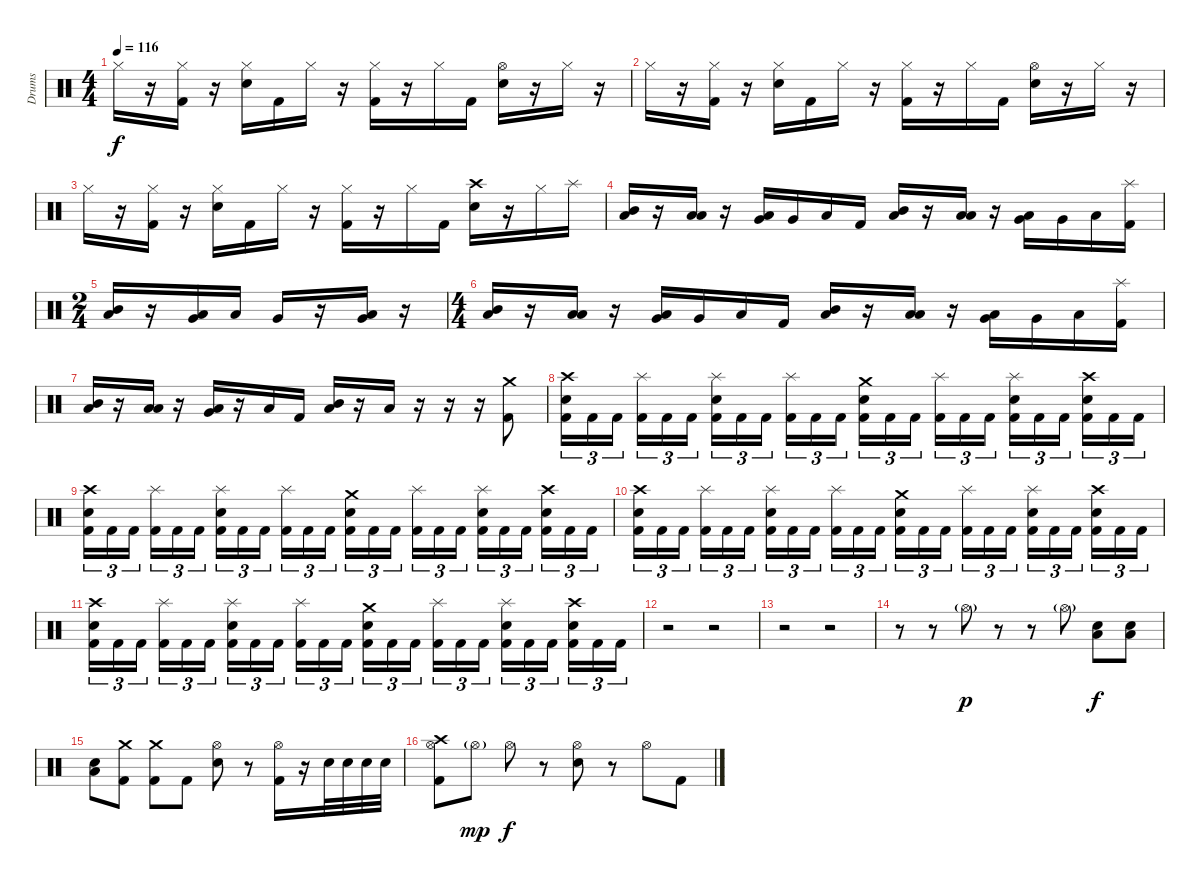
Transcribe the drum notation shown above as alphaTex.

\track ("Drums" "Drums") {instrument percussion}
\staff {score}
\articulation defaults
\ts (4 4)
\tempo 116
\clef neutral
\ks c "Hi-Hat (closed)".16{dy f}
r.16 ("Hi-Hat (closed)" "Kick (hit) 2").16 r.16 ("Hi-Hat (closed)" "Snare (hit) 2").16 "Kick (hit) 2".16 "Hi-Hat (closed)".16 r.16 ("Hi-Hat (closed)" "Kick (hit) 2").16 r.16 "Hi-Hat (closed)".16 "Kick (hit) 2".16 ("Hi-Hat (open)" "Snare (hit) 2").16 r.16 "Hi-Hat (closed)".16 r.16 |
"Hi-Hat (closed)".16 r.16 ("Hi-Hat (closed)" "Kick (hit) 2").16 r.16 ("Hi-Hat (closed)" "Snare (hit) 2").16 "Kick (hit) 2".16 "Hi-Hat (closed)".16 r.16 ("Hi-Hat (closed)" "Kick (hit) 2").16 r.16 "Hi-Hat (closed)".16 "Kick (hit) 2".16 ("Hi-Hat (open)" "Snare (hit) 2").16 r.16 "Hi-Hat (closed)".16 r.16 |
"Hi-Hat (closed)".16 r.16 ("Hi-Hat (closed)" "Kick (hit) 2").16 r.16 ("Hi-Hat (closed)" "Snare (hit) 2").16 "Kick (hit) 2".16 "Hi-Hat (closed)".16 r.16 ("Hi-Hat (closed)" "Kick (hit) 2").16 r.16 "Hi-Hat (closed)".16 "Kick (hit) 2".16 ("Crash high (hit)" "Snare (hit) 2").16 r.16 "Hi-Hat (closed)".16 "Splash (hit)".16 |
("Mid Tom (hit)" "Low Floor Tom (hit)").16 r.16 ("Low Tom (hit)" "Low Floor Tom (hit)").16 r.16 ("Very Low Tom (hit)" "Low Floor Tom (hit)").16 "Very Low Tom (hit)".16 "Low Floor Tom (hit)".16 "Kick (hit) 2".16 ("Mid Tom (hit)" "Low Floor Tom (hit)").16 r.16 ("Low Tom (hit)" "Low Floor Tom (hit)").16 r.16 ("Very Low Tom (hit)" "Low Floor Tom (hit)").16 "Very Low Tom (hit)".16 "Low Floor Tom (hit)".16 ("Splash (hit)" "Kick (hit) 2").16 |
\ts (2 4)
("Mid Tom (hit)" "Low Tom (hit)").16 r.16 ("Very Low Tom (hit)" "Low Tom (hit)").16 "Low Tom (hit)".16 "Very Low Tom (hit)".16 r.16 ("Low Floor Tom (hit)" "Very Low Tom (hit)").16 r.16 |
\ts (4 4)
("Mid Tom (hit)" "Low Floor Tom (hit)").16 r.16 ("Low Tom (hit)" "Low Floor Tom (hit)").16 r.16 ("Very Low Tom (hit)" "Low Floor Tom (hit)").16 "Very Low Tom (hit)".16 "Low Floor Tom (hit)".16 "Kick (hit) 2".16 ("Mid Tom (hit)" "Low Floor Tom (hit)").16 r.16 ("Low Tom (hit)" "Low Floor Tom (hit)").16 r.16 ("Very Low Tom (hit)" "Low Floor Tom (hit)").16 "Very Low Tom (hit)".16 "Low Floor Tom (hit)".16 ("Splash (hit)" "Kick (hit) 2").16 |
("Mid Tom (hit)" "Low Floor Tom (hit)").16 r.16 ("Low Tom (hit)" "Low Floor Tom (hit)").16 r.16 ("Very Low Tom (hit)" "Low Floor Tom (hit)").16 r.16 "Low Floor Tom (hit)".16 "Kick (hit) 2".16 ("Mid Tom (hit)" "Low Floor Tom (hit)").16 r.16 "Low Floor Tom (hit)".16 r.16 r.16 r.16 ("Crash medium (hit)" "Kick (hit) 2").8 |
("Crash high (hit)" "Snare (hit) 2" "Kick (hit) 2").16{tu (3 2)} "Kick (hit) 2".16{tu (3 2)} "Kick (hit) 2".16{tu (3 2)} ("Splash (hit)" "Kick (hit) 2").16{tu (3 2)} "Kick (hit) 2".16{tu (3 2)} "Kick (hit) 2".16{tu (3 2)} ("Splash (hit)" "Snare (hit) 2" "Kick (hit) 2").16{tu (3 2)} "Kick (hit) 2".16{tu (3 2)} "Kick (hit) 2".16{tu (3 2)} ("Splash (hit)" "Kick (hit) 2").16{tu (3 2)} "Kick (hit) 2".16{tu (3 2)} "Kick (hit) 2".16{tu (3 2)} ("Crash medium (hit)" "Snare (hit) 2" "Kick (hit) 2").16{tu (3 2)} "Kick (hit) 2".16{tu (3 2)} "Kick (hit) 2".16{tu (3 2)} ("Splash (hit)" "Kick (hit) 2").16{tu (3 2)} "Kick (hit) 2".16{tu (3 2)} "Kick (hit) 2".16{tu (3 2)} ("Splash (hit)" "Snare (hit) 2" "Kick (hit) 2").16{tu (3 2)} "Kick (hit) 2".16{tu (3 2)} "Kick (hit) 2".16{tu (3 2)} ("Crash high (hit)" "Snare (hit) 2" "Kick (hit) 2").16{tu (3 2)} "Kick (hit) 2".16{tu (3 2)} "Kick (hit) 2".16{tu (3 2)} |
("Crash high (hit)" "Snare (hit) 2" "Kick (hit) 2").16{tu (3 2)} "Kick (hit) 2".16{tu (3 2)} "Kick (hit) 2".16{tu (3 2)} ("Splash (hit)" "Kick (hit) 2").16{tu (3 2)} "Kick (hit) 2".16{tu (3 2)} "Kick (hit) 2".16{tu (3 2)} ("Splash (hit)" "Snare (hit) 2" "Kick (hit) 2").16{tu (3 2)} "Kick (hit) 2".16{tu (3 2)} "Kick (hit) 2".16{tu (3 2)} ("Splash (hit)" "Kick (hit) 2").16{tu (3 2)} "Kick (hit) 2".16{tu (3 2)} "Kick (hit) 2".16{tu (3 2)} ("Crash medium (hit)" "Snare (hit) 2" "Kick (hit) 2").16{tu (3 2)} "Kick (hit) 2".16{tu (3 2)} "Kick (hit) 2".16{tu (3 2)} ("Splash (hit)" "Kick (hit) 2").16{tu (3 2)} "Kick (hit) 2".16{tu (3 2)} "Kick (hit) 2".16{tu (3 2)} ("Splash (hit)" "Snare (hit) 2" "Kick (hit) 2").16{tu (3 2)} "Kick (hit) 2".16{tu (3 2)} "Kick (hit) 2".16{tu (3 2)} ("Crash high (hit)" "Snare (hit) 2" "Kick (hit) 2").16{tu (3 2)} "Kick (hit) 2".16{tu (3 2)} "Kick (hit) 2".16{tu (3 2)} |
("Crash high (hit)" "Snare (hit) 2" "Kick (hit) 2").16{tu (3 2)} "Kick (hit) 2".16{tu (3 2)} "Kick (hit) 2".16{tu (3 2)} ("Splash (hit)" "Kick (hit) 2").16{tu (3 2)} "Kick (hit) 2".16{tu (3 2)} "Kick (hit) 2".16{tu (3 2)} ("Splash (hit)" "Snare (hit) 2" "Kick (hit) 2").16{tu (3 2)} "Kick (hit) 2".16{tu (3 2)} "Kick (hit) 2".16{tu (3 2)} ("Splash (hit)" "Kick (hit) 2").16{tu (3 2)} "Kick (hit) 2".16{tu (3 2)} "Kick (hit) 2".16{tu (3 2)} ("Crash medium (hit)" "Snare (hit) 2" "Kick (hit) 2").16{tu (3 2)} "Kick (hit) 2".16{tu (3 2)} "Kick (hit) 2".16{tu (3 2)} ("Splash (hit)" "Kick (hit) 2").16{tu (3 2)} "Kick (hit) 2".16{tu (3 2)} "Kick (hit) 2".16{tu (3 2)} ("Splash (hit)" "Snare (hit) 2" "Kick (hit) 2").16{tu (3 2)} "Kick (hit) 2".16{tu (3 2)} "Kick (hit) 2".16{tu (3 2)} ("Crash high (hit)" "Snare (hit) 2" "Kick (hit) 2").16{tu (3 2)} "Kick (hit) 2".16{tu (3 2)} "Kick (hit) 2".16{tu (3 2)} |
("Crash high (hit)" "Snare (hit) 2" "Kick (hit) 2").16{tu (3 2)} "Kick (hit) 2".16{tu (3 2)} "Kick (hit) 2".16{tu (3 2)} ("Splash (hit)" "Kick (hit) 2").16{tu (3 2)} "Kick (hit) 2".16{tu (3 2)} "Kick (hit) 2".16{tu (3 2)} ("Splash (hit)" "Snare (hit) 2" "Kick (hit) 2").16{tu (3 2)} "Kick (hit) 2".16{tu (3 2)} "Kick (hit) 2".16{tu (3 2)} ("Splash (hit)" "Kick (hit) 2").16{tu (3 2)} "Kick (hit) 2".16{tu (3 2)} "Kick (hit) 2".16{tu (3 2)} ("Crash medium (hit)" "Snare (hit) 2" "Kick (hit) 2").16{tu (3 2)} "Kick (hit) 2".16{tu (3 2)} "Kick (hit) 2".16{tu (3 2)} ("Splash (hit)" "Kick (hit) 2").16{tu (3 2)} "Kick (hit) 2".16{tu (3 2)} "Kick (hit) 2".16{tu (3 2)} ("Splash (hit)" "Snare (hit) 2" "Kick (hit) 2").16{tu (3 2)} "Kick (hit) 2".16{tu (3 2)} "Kick (hit) 2".16{tu (3 2)} ("Crash high (hit)" "Snare (hit) 2" "Kick (hit) 2").16{tu (3 2)} "Kick (hit) 2".16{tu (3 2)} "Kick (hit) 2".16{tu (3 2)} |
r.2 r.2 |
r.2 r.2 |
r.8 r.8 "Hi-Hat (open)"{g}.8{dy p} r.8 r.8 "Hi-Hat (open)"{g}.8 ("Low Floor Tom (hit)" "Snare (hit) 2").8{dy f} ("Low Floor Tom (hit)" "Snare (hit) 2").8 |
("Low Floor Tom (hit)" "Snare (hit) 2").8 ("Crash medium (hit)" "Kick (hit) 2").8 ("Crash medium (hit)" "Kick (hit) 2").8 "Kick (hit) 2".8 ("Hi-Hat (open)" "Snare (hit) 2").8 r.8 ("Hi-Hat (open)" "Kick (hit) 2").16 r.16 "Snare (hit) 2".32 "Snare (hit) 2".32 "Snare (hit) 2".32 "Snare (hit) 2".32 |
("Crash high (hit)" "Hi-Hat (open)" "Kick (hit) 2").8 "Hi-Hat (open)"{g}.8{dy mp} "Hi-Hat (open)".8{dy f} r.8 ("Hi-Hat (open)" "Snare (hit) 2").8 r.8 "Hi-Hat (open)".8 "Kick (hit) 2".8
